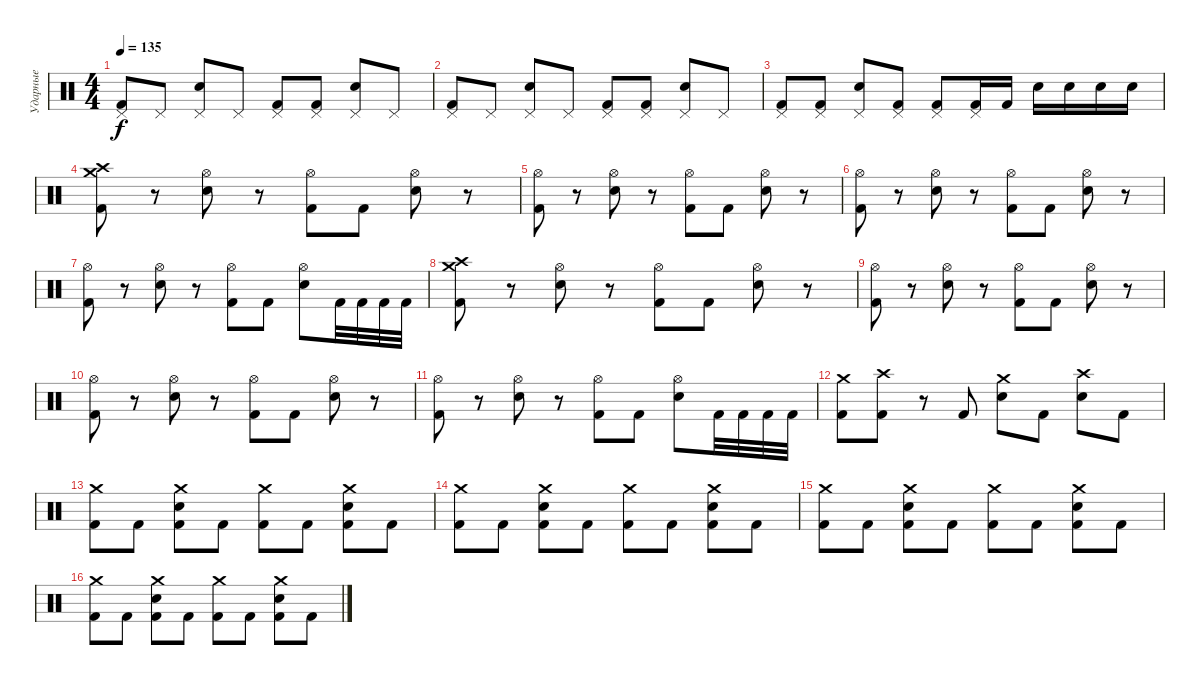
\track ("Ударные" "Ударные") {instrument percussion}
\staff {score}
\articulation defaults
\ts (4 4)
\tempo 135
\clef neutral
\ks c
("Pedal Hi-Hat (hit)" "Kick (hit) 2").8{dy f} "Pedal Hi-Hat (hit)".8 ("Pedal Hi-Hat (hit)" "Electric Snare (hit)").8 "Pedal Hi-Hat (hit)".8 ("Pedal Hi-Hat (hit)" "Kick (hit) 2").8 ("Pedal Hi-Hat (hit)" "Kick (hit) 2").8 ("Pedal Hi-Hat (hit)" "Electric Snare (hit)").8 "Pedal Hi-Hat (hit)".8 |
("Pedal Hi-Hat (hit)" "Kick (hit) 2").8 "Pedal Hi-Hat (hit)".8 ("Pedal Hi-Hat (hit)" "Electric Snare (hit)").8 "Pedal Hi-Hat (hit)".8 ("Pedal Hi-Hat (hit)" "Kick (hit) 2").8 ("Pedal Hi-Hat (hit)" "Kick (hit) 2").8 ("Pedal Hi-Hat (hit)" "Electric Snare (hit)").8 "Pedal Hi-Hat (hit)".8 |
("Pedal Hi-Hat (hit)" "Kick (hit) 2").8 ("Pedal Hi-Hat (hit)" "Kick (hit) 2").8 ("Pedal Hi-Hat (hit)" "Electric Snare (hit)").8 ("Pedal Hi-Hat (hit)" "Kick (hit) 2").8 ("Pedal Hi-Hat (hit)" "Kick (hit) 2").8 ("Pedal Hi-Hat (hit)" "Kick (hit) 2").16 "Kick (hit) 2".16 "Electric Snare (hit)".16 "Electric Snare (hit)".16 "Electric Snare (hit)".16 "Electric Snare (hit)".16 |
("Crash medium (hit)" "Crash high (hit)" "Kick (hit) 2").8 r.8 ("Hi-Hat (open)" "Electric Snare (hit)").8 r.8 ("Hi-Hat (open)" "Kick (hit) 2").8 "Kick (hit) 2".8 ("Hi-Hat (open)" "Electric Snare (hit)").8 r.8 |
("Hi-Hat (open)" "Kick (hit) 2").8 r.8 ("Hi-Hat (open)" "Electric Snare (hit)").8 r.8 ("Hi-Hat (open)" "Kick (hit) 2").8 "Kick (hit) 2".8 ("Hi-Hat (open)" "Electric Snare (hit)").8 r.8 |
("Hi-Hat (open)" "Kick (hit) 2").8 r.8 ("Hi-Hat (open)" "Electric Snare (hit)").8 r.8 ("Hi-Hat (open)" "Kick (hit) 2").8 "Kick (hit) 2".8 ("Hi-Hat (open)" "Electric Snare (hit)").8 r.8 |
("Hi-Hat (open)" "Kick (hit) 2").8 r.8 ("Hi-Hat (open)" "Electric Snare (hit)").8 r.8 ("Hi-Hat (open)" "Kick (hit) 2").8 "Kick (hit) 2".8 ("Hi-Hat (open)" "Electric Snare (hit)").8 "Kick (hit) 2".32 "Kick (hit) 2".32 "Kick (hit) 2".32 "Kick (hit) 2".32 |
("Crash medium (hit)" "Crash high (hit)" "Kick (hit) 2").8 r.8 ("Hi-Hat (open)" "Electric Snare (hit)").8 r.8 ("Hi-Hat (open)" "Kick (hit) 2").8 "Kick (hit) 2".8 ("Hi-Hat (open)" "Electric Snare (hit)").8 r.8 |
("Hi-Hat (open)" "Kick (hit) 2").8 r.8 ("Hi-Hat (open)" "Electric Snare (hit)").8 r.8 ("Hi-Hat (open)" "Kick (hit) 2").8 "Kick (hit) 2".8 ("Hi-Hat (open)" "Electric Snare (hit)").8 r.8 |
("Hi-Hat (open)" "Kick (hit) 2").8 r.8 ("Hi-Hat (open)" "Electric Snare (hit)").8 r.8 ("Hi-Hat (open)" "Kick (hit) 2").8 "Kick (hit) 2".8 ("Hi-Hat (open)" "Electric Snare (hit)").8 r.8 |
("Hi-Hat (open)" "Kick (hit) 2").8 r.8 ("Hi-Hat (open)" "Electric Snare (hit)").8 r.8 ("Hi-Hat (open)" "Kick (hit) 2").8 "Kick (hit) 2".8 ("Hi-Hat (open)" "Electric Snare (hit)").8 "Kick (hit) 2".32 "Kick (hit) 2".32 "Kick (hit) 2".32 "Kick (hit) 2".32 |
("Crash medium (hit)" "Kick (hit) 2").8 ("Crash high (hit)" "Kick (hit) 2").8 r.8 "Kick (hit) 2".8 ("Crash medium (hit)" "Electric Snare (hit)").8 "Kick (hit) 2".8 ("Crash high (hit)" "Electric Snare (hit)").8 "Kick (hit) 2".8 |
("Crash medium (hit)" "Kick (hit) 2").8 "Kick (hit) 2".8 ("Crash medium (hit)" "Electric Snare (hit)" "Kick (hit) 2").8 "Kick (hit) 2".8 ("Crash medium (hit)" "Kick (hit) 2").8 "Kick (hit) 2".8 ("Crash medium (hit)" "Electric Snare (hit)" "Kick (hit) 2").8 "Kick (hit) 2".8 |
("Crash medium (hit)" "Kick (hit) 2").8 "Kick (hit) 2".8 ("Crash medium (hit)" "Electric Snare (hit)" "Kick (hit) 2").8 "Kick (hit) 2".8 ("Crash medium (hit)" "Kick (hit) 2").8 "Kick (hit) 2".8 ("Crash medium (hit)" "Electric Snare (hit)" "Kick (hit) 2").8 "Kick (hit) 2".8 |
("Crash medium (hit)" "Kick (hit) 2").8 "Kick (hit) 2".8 ("Crash medium (hit)" "Electric Snare (hit)" "Kick (hit) 2").8 "Kick (hit) 2".8 ("Crash medium (hit)" "Kick (hit) 2").8 "Kick (hit) 2".8 ("Crash medium (hit)" "Electric Snare (hit)" "Kick (hit) 2").8 "Kick (hit) 2".8 |
("Crash medium (hit)" "Kick (hit) 2").8 "Kick (hit) 2".8 ("Crash medium (hit)" "Electric Snare (hit)" "Kick (hit) 2").8 "Kick (hit) 2".8 ("Crash medium (hit)" "Kick (hit) 2").8 "Kick (hit) 2".8 ("Crash medium (hit)" "Electric Snare (hit)" "Kick (hit) 2").8 "Kick (hit) 2".8
